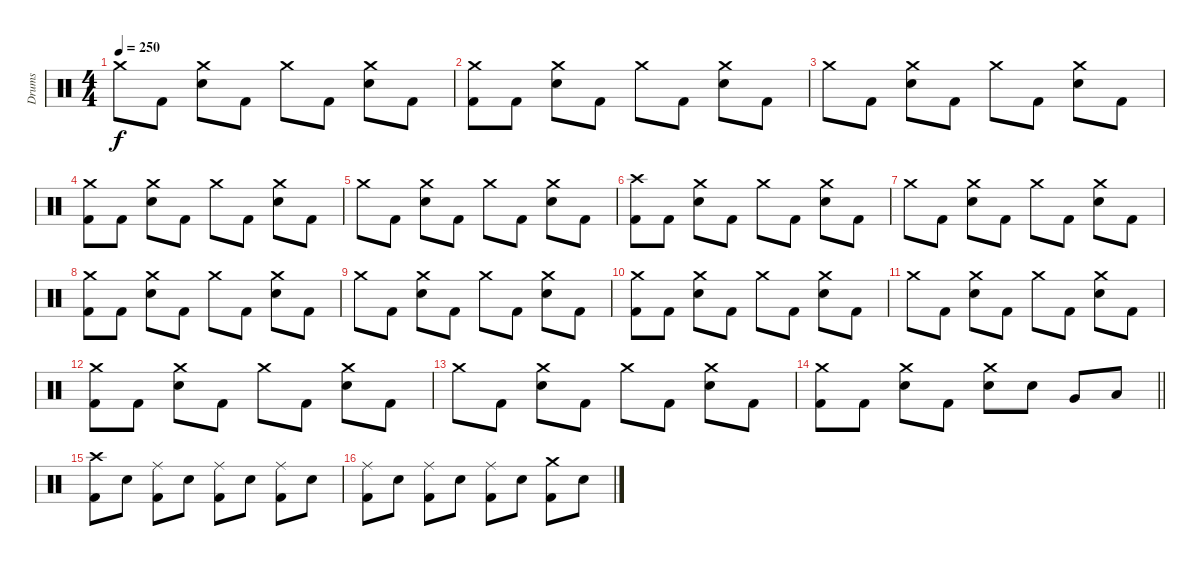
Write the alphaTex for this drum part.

\track ("Drums" "Drums") {instrument percussion}
\staff {score}
\articulation defaults
\ts (4 4)
\tempo 250
\clef neutral
\ks c "Crash medium (hit)".8{dy f} "Kick (hit) 2".8
("Crash medium (hit)" "Electric Snare (hit)").8 "Kick (hit) 2".8 "Crash medium (hit)".8 "Kick (hit) 2".8 ("Crash medium (hit)" "Electric Snare (hit)").8 "Kick (hit) 2".8 |
("Crash medium (hit)" "Kick (hit) 2").8 "Kick (hit) 2".8 ("Crash medium (hit)" "Electric Snare (hit)").8 "Kick (hit) 2".8 "Crash medium (hit)".8 "Kick (hit) 2".8 ("Crash medium (hit)" "Electric Snare (hit)").8 "Kick (hit) 2".8 |
"Crash medium (hit)".8 "Kick (hit) 2".8 ("Crash medium (hit)" "Electric Snare (hit)").8 "Kick (hit) 2".8 "Crash medium (hit)".8 "Kick (hit) 2".8 ("Crash medium (hit)" "Electric Snare (hit)").8 "Kick (hit) 2".8 |
("Crash medium (hit)" "Kick (hit) 2").8 "Kick (hit) 2".8 ("Crash medium (hit)" "Electric Snare (hit)").8 "Kick (hit) 2".8 "Crash medium (hit)".8 "Kick (hit) 2".8 ("Crash medium (hit)" "Electric Snare (hit)").8 "Kick (hit) 2".8 |
"Crash medium (hit)".8 "Kick (hit) 2".8 ("Crash medium (hit)" "Electric Snare (hit)").8 "Kick (hit) 2".8 "Crash medium (hit)".8 "Kick (hit) 2".8 ("Crash medium (hit)" "Electric Snare (hit)").8 "Kick (hit) 2".8 |
("Crash high (hit)" "Kick (hit) 2").8 "Kick (hit) 2".8 ("Crash medium (hit)" "Electric Snare (hit)").8 "Kick (hit) 2".8 "Crash medium (hit)".8 "Kick (hit) 2".8 ("Crash medium (hit)" "Electric Snare (hit)").8 "Kick (hit) 2".8 |
"Crash medium (hit)".8 "Kick (hit) 2".8 ("Crash medium (hit)" "Electric Snare (hit)").8 "Kick (hit) 2".8 "Crash medium (hit)".8 "Kick (hit) 2".8 ("Crash medium (hit)" "Electric Snare (hit)").8 "Kick (hit) 2".8 |
("Crash medium (hit)" "Kick (hit) 2").8 "Kick (hit) 2".8 ("Crash medium (hit)" "Electric Snare (hit)").8 "Kick (hit) 2".8 "Crash medium (hit)".8 "Kick (hit) 2".8 ("Crash medium (hit)" "Electric Snare (hit)").8 "Kick (hit) 2".8 |
"Crash medium (hit)".8 "Kick (hit) 2".8 ("Crash medium (hit)" "Electric Snare (hit)").8 "Kick (hit) 2".8 "Crash medium (hit)".8 "Kick (hit) 2".8 ("Crash medium (hit)" "Electric Snare (hit)").8 "Kick (hit) 2".8 |
("Crash medium (hit)" "Kick (hit) 2").8 "Kick (hit) 2".8 ("Crash medium (hit)" "Electric Snare (hit)").8 "Kick (hit) 2".8 "Crash medium (hit)".8 "Kick (hit) 2".8 ("Crash medium (hit)" "Electric Snare (hit)").8 "Kick (hit) 2".8 |
"Crash medium (hit)".8 "Kick (hit) 2".8 ("Crash medium (hit)" "Electric Snare (hit)").8 "Kick (hit) 2".8 "Crash medium (hit)".8 "Kick (hit) 2".8 ("Crash medium (hit)" "Electric Snare (hit)").8 "Kick (hit) 2".8 |
("Crash medium (hit)" "Kick (hit) 2").8 "Kick (hit) 2".8 ("Crash medium (hit)" "Electric Snare (hit)").8 "Kick (hit) 2".8 "Crash medium (hit)".8 "Kick (hit) 2".8 ("Crash medium (hit)" "Electric Snare (hit)").8 "Kick (hit) 2".8 |
"Crash medium (hit)".8 "Kick (hit) 2".8 ("Crash medium (hit)" "Electric Snare (hit)").8 "Kick (hit) 2".8 "Crash medium (hit)".8 "Kick (hit) 2".8 ("Crash medium (hit)" "Electric Snare (hit)").8 "Kick (hit) 2".8 |
\barLineRight lightlight
("Crash medium (hit)" "Kick (hit) 2").8 "Kick (hit) 2".8 ("Crash medium (hit)" "Electric Snare (hit)").8 "Kick (hit) 2".8 ("Crash medium (hit)" "Electric Snare (hit)").8 "Electric Snare (hit)".8 "Very Low Tom (hit)".8 "Low Floor Tom (hit)".8 |
("Crash high (hit)" "Kick (hit) 2").8 "Electric Snare (hit)".8 ("Ride (middle)" "Kick (hit) 2").8 "Electric Snare (hit)".8 ("Ride (middle)" "Kick (hit) 2").8 "Electric Snare (hit)".8 ("Ride (middle)" "Kick (hit) 2").8 "Electric Snare (hit)".8 |
("Ride (middle)" "Kick (hit) 2").8 "Electric Snare (hit)".8 ("Ride (middle)" "Kick (hit) 2").8 "Electric Snare (hit)".8 ("Ride (middle)" "Kick (hit) 2").8 "Electric Snare (hit)".8 ("Crash medium (hit)" "Kick (hit) 2").8 "Electric Snare (hit)".8
